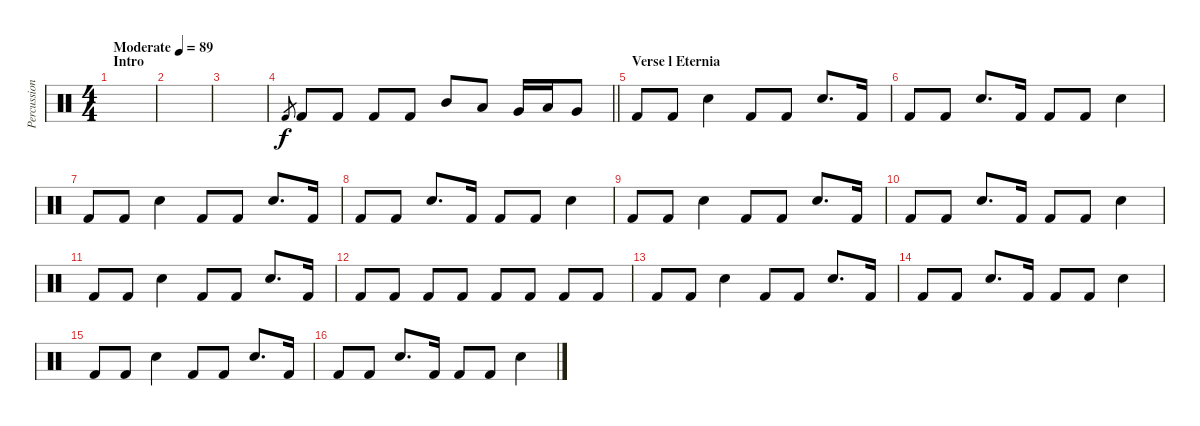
\track ("Percussion" "Percussion") {instrument percussion}
\staff {score}
\articulation defaults
\ts (4 4)
\section ("" "Intro")
\tempo (89 "Moderate")
\clef neutral
\ks c
|
|
|
\barLineRight lightlight "Kick (hit) 2".8{gr} "Kick (hit) 2".8 "Kick (hit) 2".8 "Kick (hit) 2".8 "Kick (hit) 2".8 "Mid Tom (hit)".8 "Low Tom (hit)".8 "Very Low Tom (hit)".16 "Low Tom (hit)".16 "Very Low Tom (hit)".8
|
\section ("" "Verse l Eternia")
"Kick (hit) 2".8 "Kick (hit) 2".8 "Snare (hit) 2".4 "Kick (hit) 2".8 "Kick (hit) 2".8 "Snare (hit) 2".8{d} "Kick (hit) 2".16 |
"Kick (hit) 2".8 "Kick (hit) 2".8 "Snare (hit) 2".8{d} "Kick (hit) 2".16 "Kick (hit) 2".8 "Kick (hit) 2".8 "Snare (hit) 2".4 |
"Kick (hit) 2".8 "Kick (hit) 2".8 "Snare (hit) 2".4 "Kick (hit) 2".8 "Kick (hit) 2".8 "Snare (hit) 2".8{d} "Kick (hit) 2".16 |
"Kick (hit) 2".8 "Kick (hit) 2".8 "Snare (hit) 2".8{d} "Kick (hit) 2".16 "Kick (hit) 2".8 "Kick (hit) 2".8 "Snare (hit) 2".4 |
"Kick (hit) 2".8 "Kick (hit) 2".8 "Snare (hit) 2".4 "Kick (hit) 2".8 "Kick (hit) 2".8 "Snare (hit) 2".8{d} "Kick (hit) 2".16 |
"Kick (hit) 2".8 "Kick (hit) 2".8 "Snare (hit) 2".8{d} "Kick (hit) 2".16 "Kick (hit) 2".8 "Kick (hit) 2".8 "Snare (hit) 2".4 |
"Kick (hit) 2".8 "Kick (hit) 2".8 "Snare (hit) 2".4 "Kick (hit) 2".8 "Kick (hit) 2".8 "Snare (hit) 2".8{d} "Kick (hit) 2".16 |
"Kick (hit) 2".8 "Kick (hit) 2".8 "Kick (hit) 2".8 "Kick (hit) 2".8 "Kick (hit) 2".8 "Kick (hit) 2".8 "Kick (hit) 2".8 "Kick (hit) 2".8 |
"Kick (hit) 2".8 "Kick (hit) 2".8 "Snare (hit) 2".4 "Kick (hit) 2".8 "Kick (hit) 2".8 "Snare (hit) 2".8{d} "Kick (hit) 2".16 |
"Kick (hit) 2".8 "Kick (hit) 2".8 "Snare (hit) 2".8{d} "Kick (hit) 2".16 "Kick (hit) 2".8 "Kick (hit) 2".8 "Snare (hit) 2".4 |
"Kick (hit) 2".8 "Kick (hit) 2".8 "Snare (hit) 2".4 "Kick (hit) 2".8 "Kick (hit) 2".8 "Snare (hit) 2".8{d} "Kick (hit) 2".16 |
"Kick (hit) 2".8 "Kick (hit) 2".8 "Snare (hit) 2".8{d} "Kick (hit) 2".16 "Kick (hit) 2".8 "Kick (hit) 2".8 "Snare (hit) 2".4
